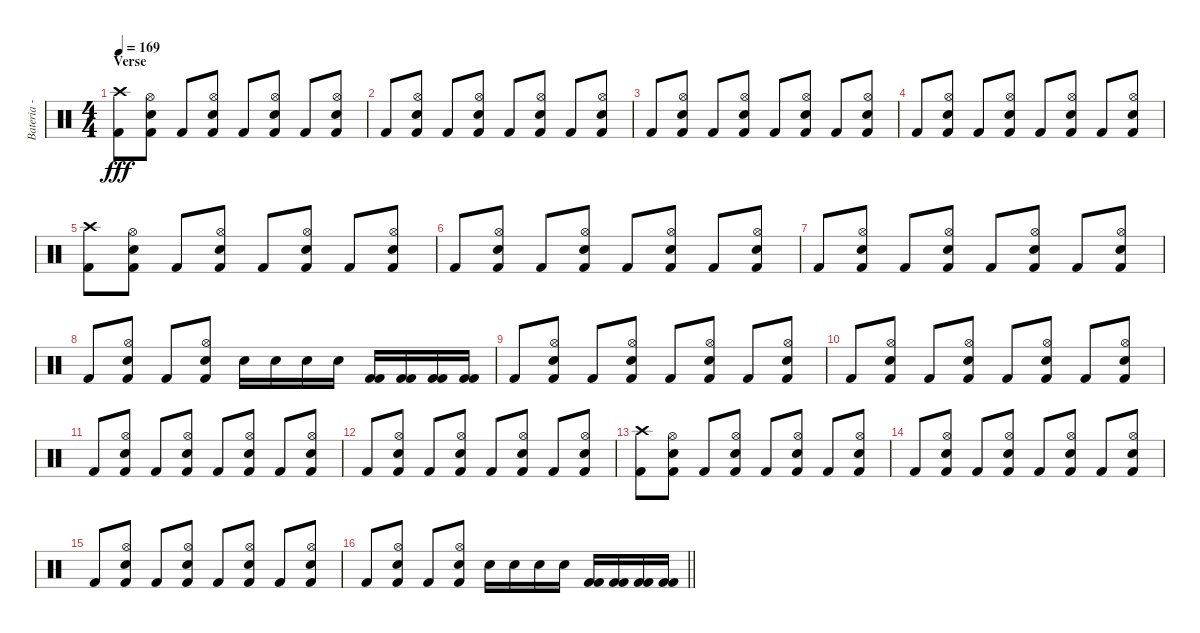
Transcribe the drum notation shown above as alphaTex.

\track ("Bateria - Larzon" "Bateria - ") {instrument percussion}
\staff {score}
\articulation defaults
\ts (4 4)
\section ("" "Verse")
\tempo 169
\clef neutral
\ks c
("Crash high (hit)" "Kick (hit) 2").8{dy fff} ("Kick (hit) 2" "Hi-Hat (open)" "Snare (hit) 2").8 "Kick (hit) 2".8 ("Kick (hit) 2" "Hi-Hat (open)" "Snare (hit) 2").8 "Kick (hit) 2".8 ("Kick (hit) 2" "Hi-Hat (open)" "Snare (hit) 2").8 "Kick (hit) 2".8 ("Kick (hit) 2" "Hi-Hat (open)" "Snare (hit) 2").8 |
"Kick (hit) 2".8 ("Kick (hit) 2" "Hi-Hat (open)" "Snare (hit) 2").8 "Kick (hit) 2".8 ("Kick (hit) 2" "Hi-Hat (open)" "Snare (hit) 2").8 "Kick (hit) 2".8 ("Kick (hit) 2" "Hi-Hat (open)" "Snare (hit) 2").8 "Kick (hit) 2".8 ("Kick (hit) 2" "Hi-Hat (open)" "Snare (hit) 2").8 |
"Kick (hit) 2".8 ("Kick (hit) 2" "Hi-Hat (open)" "Snare (hit) 2").8 "Kick (hit) 2".8 ("Kick (hit) 2" "Hi-Hat (open)" "Snare (hit) 2").8 "Kick (hit) 2".8 ("Kick (hit) 2" "Hi-Hat (open)" "Snare (hit) 2").8 "Kick (hit) 2".8 ("Kick (hit) 2" "Hi-Hat (open)" "Snare (hit) 2").8 |
"Kick (hit) 2".8 ("Kick (hit) 2" "Hi-Hat (open)" "Snare (hit) 2").8 "Kick (hit) 2".8 ("Kick (hit) 2" "Hi-Hat (open)" "Snare (hit) 2").8 "Kick (hit) 2".8 ("Kick (hit) 2" "Hi-Hat (open)" "Snare (hit) 2").8 "Kick (hit) 2".8 ("Kick (hit) 2" "Hi-Hat (open)" "Snare (hit) 2").8 |
("Crash high (hit)" "Kick (hit) 2").8 ("Kick (hit) 2" "Hi-Hat (open)" "Snare (hit) 2").8 "Kick (hit) 2".8 ("Kick (hit) 2" "Hi-Hat (open)" "Snare (hit) 2").8 "Kick (hit) 2".8 ("Kick (hit) 2" "Hi-Hat (open)" "Snare (hit) 2").8 "Kick (hit) 2".8 ("Kick (hit) 2" "Hi-Hat (open)" "Snare (hit) 2").8 |
"Kick (hit) 2".8 ("Kick (hit) 2" "Hi-Hat (open)" "Snare (hit) 2").8 "Kick (hit) 2".8 ("Kick (hit) 2" "Hi-Hat (open)" "Snare (hit) 2").8 "Kick (hit) 2".8 ("Kick (hit) 2" "Hi-Hat (open)" "Snare (hit) 2").8 "Kick (hit) 2".8 ("Kick (hit) 2" "Hi-Hat (open)" "Snare (hit) 2").8 |
"Kick (hit) 2".8 ("Kick (hit) 2" "Hi-Hat (open)" "Snare (hit) 2").8 "Kick (hit) 2".8 ("Kick (hit) 2" "Hi-Hat (open)" "Snare (hit) 2").8 "Kick (hit) 2".8 ("Kick (hit) 2" "Hi-Hat (open)" "Snare (hit) 2").8 "Kick (hit) 2".8 ("Kick (hit) 2" "Hi-Hat (open)" "Snare (hit) 2").8 |
"Kick (hit) 2".8 ("Kick (hit) 2" "Hi-Hat (open)" "Snare (hit) 2").8 "Kick (hit) 2".8 ("Kick (hit) 2" "Hi-Hat (open)" "Snare (hit) 2").8 "Snare (hit) 2".16 "Snare (hit) 2".16 "Snare (hit) 2".16 "Snare (hit) 2".16 ("Kick (hit) 2" "Kick (hit) 2").16 ("Kick (hit) 2" "Kick (hit) 2").16 ("Kick (hit) 2" "Kick (hit) 2").16 ("Kick (hit) 2" "Kick (hit) 2").16 |
"Kick (hit) 2".8 ("Kick (hit) 2" "Hi-Hat (open)" "Snare (hit) 2").8 "Kick (hit) 2".8 ("Kick (hit) 2" "Hi-Hat (open)" "Snare (hit) 2").8 "Kick (hit) 2".8 ("Kick (hit) 2" "Hi-Hat (open)" "Snare (hit) 2").8 "Kick (hit) 2".8 ("Kick (hit) 2" "Hi-Hat (open)" "Snare (hit) 2").8 |
"Kick (hit) 2".8 ("Kick (hit) 2" "Hi-Hat (open)" "Snare (hit) 2").8 "Kick (hit) 2".8 ("Kick (hit) 2" "Hi-Hat (open)" "Snare (hit) 2").8 "Kick (hit) 2".8 ("Kick (hit) 2" "Hi-Hat (open)" "Snare (hit) 2").8 "Kick (hit) 2".8 ("Kick (hit) 2" "Hi-Hat (open)" "Snare (hit) 2").8 |
"Kick (hit) 2".8 ("Kick (hit) 2" "Hi-Hat (open)" "Snare (hit) 2").8 "Kick (hit) 2".8 ("Kick (hit) 2" "Hi-Hat (open)" "Snare (hit) 2").8 "Kick (hit) 2".8 ("Kick (hit) 2" "Hi-Hat (open)" "Snare (hit) 2").8 "Kick (hit) 2".8 ("Kick (hit) 2" "Hi-Hat (open)" "Snare (hit) 2").8 |
"Kick (hit) 2".8 ("Kick (hit) 2" "Hi-Hat (open)" "Snare (hit) 2").8 "Kick (hit) 2".8 ("Kick (hit) 2" "Hi-Hat (open)" "Snare (hit) 2").8 "Kick (hit) 2".8 ("Kick (hit) 2" "Hi-Hat (open)" "Snare (hit) 2").8 "Kick (hit) 2".8 ("Kick (hit) 2" "Hi-Hat (open)" "Snare (hit) 2").8 |
("Crash high (hit)" "Kick (hit) 2").8 ("Kick (hit) 2" "Hi-Hat (open)" "Snare (hit) 2").8 "Kick (hit) 2".8 ("Kick (hit) 2" "Hi-Hat (open)" "Snare (hit) 2").8 "Kick (hit) 2".8 ("Kick (hit) 2" "Hi-Hat (open)" "Snare (hit) 2").8 "Kick (hit) 2".8 ("Kick (hit) 2" "Hi-Hat (open)" "Snare (hit) 2").8 |
"Kick (hit) 2".8 ("Kick (hit) 2" "Hi-Hat (open)" "Snare (hit) 2").8 "Kick (hit) 2".8 ("Kick (hit) 2" "Hi-Hat (open)" "Snare (hit) 2").8 "Kick (hit) 2".8 ("Kick (hit) 2" "Hi-Hat (open)" "Snare (hit) 2").8 "Kick (hit) 2".8 ("Kick (hit) 2" "Hi-Hat (open)" "Snare (hit) 2").8 |
"Kick (hit) 2".8 ("Kick (hit) 2" "Hi-Hat (open)" "Snare (hit) 2").8 "Kick (hit) 2".8 ("Kick (hit) 2" "Hi-Hat (open)" "Snare (hit) 2").8 "Kick (hit) 2".8 ("Kick (hit) 2" "Hi-Hat (open)" "Snare (hit) 2").8 "Kick (hit) 2".8 ("Kick (hit) 2" "Hi-Hat (open)" "Snare (hit) 2").8 |
\barLineRight lightlight "Kick (hit) 2".8
("Kick (hit) 2" "Hi-Hat (open)" "Snare (hit) 2").8 "Kick (hit) 2".8 ("Kick (hit) 2" "Hi-Hat (open)" "Snare (hit) 2").8 "Snare (hit) 2".16 "Snare (hit) 2".16 "Snare (hit) 2".16 "Snare (hit) 2".16 ("Kick (hit) 2" "Kick (hit) 2").16 ("Kick (hit) 2" "Kick (hit) 2").16 ("Kick (hit) 2" "Kick (hit) 2").16 ("Kick (hit) 2" "Kick (hit) 2").16
